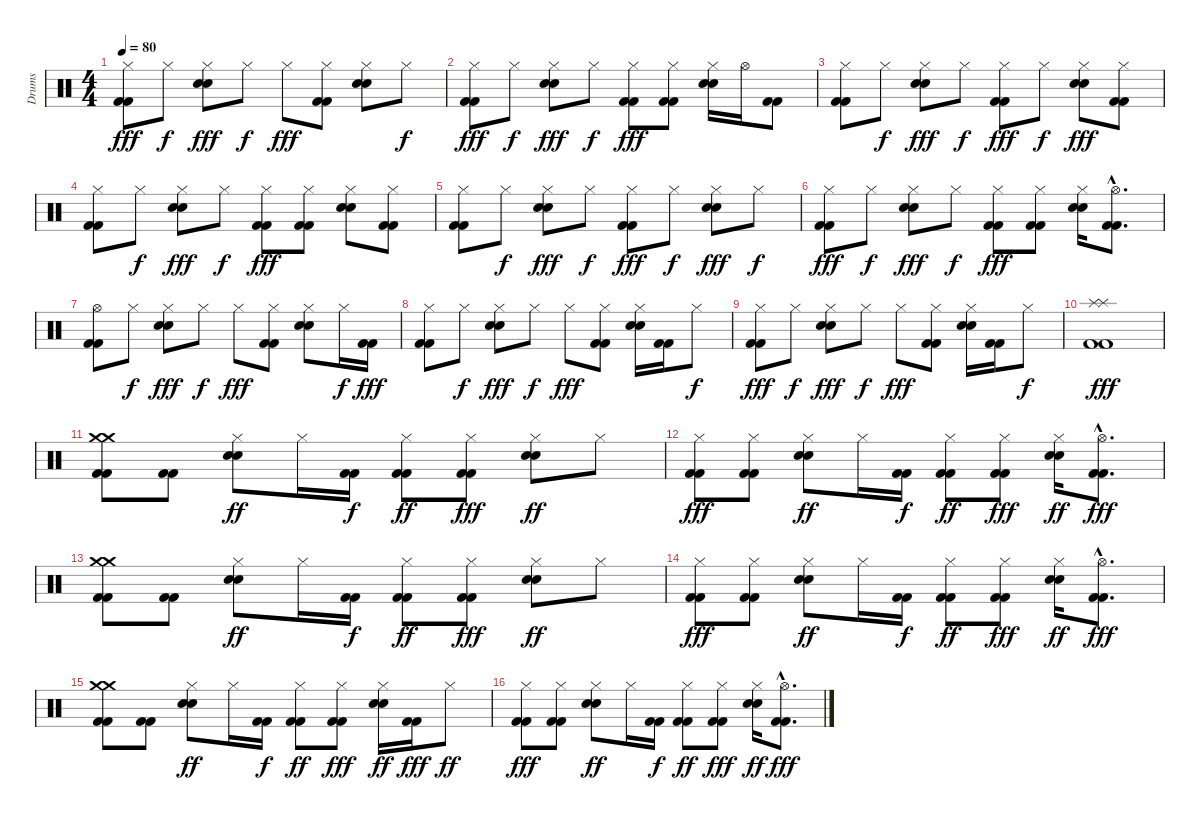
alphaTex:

\track ("Drums" "Drums") {instrument percussion}
\staff {score}
\articulation defaults
\ts (4 4)
\tempo 80
\clef neutral
\ks c
("Hi-Hat (closed)" "Kick (hit) 2" "Kick (hit) 2").8{dy fff} "Hi-Hat (closed)".8{dy f} ("Hi-Hat (closed)" "Electric Snare (hit)" "Electric Snare (hit)").8{dy fff} "Hi-Hat (closed)".8{dy f} "Hi-Hat (closed)".8{dy fff} ("Hi-Hat (closed)" "Kick (hit) 2" "Kick (hit) 2").8 ("Hi-Hat (closed)" "Electric Snare (hit)" "Electric Snare (hit)").8 "Hi-Hat (closed)".8{dy f} |
("Hi-Hat (closed)" "Kick (hit) 2" "Kick (hit) 2").8{dy fff} "Hi-Hat (closed)".8{dy f} ("Hi-Hat (closed)" "Electric Snare (hit)" "Electric Snare (hit)").8{dy fff} "Hi-Hat (closed)".8{dy f} ("Hi-Hat (closed)" "Kick (hit) 2" "Kick (hit) 2").8{dy fff} ("Hi-Hat (closed)" "Kick (hit) 2" "Kick (hit) 2").8 ("Hi-Hat (closed)" "Electric Snare (hit)" "Electric Snare (hit)").16 "Hi-Hat (open)".16 ("Kick (hit) 2" "Kick (hit) 2").8 |
("Hi-Hat (closed)" "Kick (hit) 2" "Kick (hit) 2").8 "Hi-Hat (closed)".8{dy f} ("Hi-Hat (closed)" "Electric Snare (hit)" "Electric Snare (hit)").8{dy fff} "Hi-Hat (closed)".8{dy f} ("Hi-Hat (closed)" "Kick (hit) 2" "Kick (hit) 2").8{dy fff} "Hi-Hat (closed)".8{dy f} ("Hi-Hat (closed)" "Electric Snare (hit)" "Electric Snare (hit)").8{dy fff} ("Hi-Hat (closed)" "Kick (hit) 2" "Kick (hit) 2").8 |
("Hi-Hat (closed)" "Kick (hit) 2" "Kick (hit) 2").8 "Hi-Hat (closed)".8{dy f} ("Hi-Hat (closed)" "Electric Snare (hit)" "Electric Snare (hit)").8{dy fff} "Hi-Hat (closed)".8{dy f} ("Hi-Hat (closed)" "Kick (hit) 2" "Kick (hit) 2").8{dy fff} ("Hi-Hat (closed)" "Kick (hit) 2" "Kick (hit) 2").8 ("Hi-Hat (closed)" "Electric Snare (hit)" "Electric Snare (hit)").8 ("Hi-Hat (closed)" "Kick (hit) 2" "Kick (hit) 2").8 |
("Hi-Hat (closed)" "Kick (hit) 2" "Kick (hit) 2").8 "Hi-Hat (closed)".8{dy f} ("Hi-Hat (closed)" "Electric Snare (hit)" "Electric Snare (hit)").8{dy fff} "Hi-Hat (closed)".8{dy f} ("Hi-Hat (closed)" "Kick (hit) 2" "Kick (hit) 2").8{dy fff} "Hi-Hat (closed)".8{dy f} ("Hi-Hat (closed)" "Electric Snare (hit)" "Electric Snare (hit)").8{dy fff} "Hi-Hat (closed)".8{dy f} |
("Hi-Hat (closed)" "Kick (hit) 2" "Kick (hit) 2").8{dy fff} "Hi-Hat (closed)".8{dy f} ("Hi-Hat (closed)" "Electric Snare (hit)" "Electric Snare (hit)").8{dy fff} "Hi-Hat (closed)".8{dy f} ("Hi-Hat (closed)" "Kick (hit) 2" "Kick (hit) 2").8{dy fff} ("Hi-Hat (closed)" "Kick (hit) 2" "Kick (hit) 2").8 ("Hi-Hat (closed)" "Electric Snare (hit)" "Electric Snare (hit)").16 ("Hi-Hat (open)"{hac} "Kick (hit) 2"{hac} "Kick (hit) 2"{hac}).8{d} |
("Hi-Hat (open)" "Kick (hit) 2" "Kick (hit) 2").8 "Hi-Hat (closed)".8{dy f} ("Hi-Hat (closed)" "Electric Snare (hit)" "Electric Snare (hit)").8{dy fff} "Hi-Hat (closed)".8{dy f} "Hi-Hat (closed)".8{dy fff} ("Hi-Hat (closed)" "Kick (hit) 2" "Kick (hit) 2").8 ("Hi-Hat (closed)" "Electric Snare (hit)" "Electric Snare (hit)").8 "Hi-Hat (closed)".16{dy f} ("Kick (hit) 2" "Kick (hit) 2").16{dy fff} |
("Hi-Hat (closed)" "Kick (hit) 2" "Kick (hit) 2").8 "Hi-Hat (closed)".8{dy f} ("Hi-Hat (closed)" "Electric Snare (hit)" "Electric Snare (hit)").8{dy fff} "Hi-Hat (closed)".8{dy f} "Hi-Hat (closed)".8{dy fff} ("Hi-Hat (closed)" "Kick (hit) 2" "Kick (hit) 2").8 ("Hi-Hat (closed)" "Electric Snare (hit)" "Electric Snare (hit)").16 ("Kick (hit) 2" "Kick (hit) 2").16 "Hi-Hat (closed)".8{dy f} |
("Hi-Hat (closed)" "Kick (hit) 2" "Kick (hit) 2").8{dy fff} "Hi-Hat (closed)".8{dy f} ("Hi-Hat (closed)" "Electric Snare (hit)" "Electric Snare (hit)").8{dy fff} "Hi-Hat (closed)".8{dy f} "Hi-Hat (closed)".8{dy fff} ("Hi-Hat (closed)" "Kick (hit) 2" "Kick (hit) 2").8 ("Hi-Hat (closed)" "Electric Snare (hit)" "Electric Snare (hit)").16 ("Kick (hit) 2" "Kick (hit) 2").16 "Hi-Hat (closed)".8{dy f} |
("Splash (hit)" "Splash (hit)" "Kick (hit) 2" "Kick (hit) 2").1{dy fff} |
("Crash medium (hit)" "Crash medium (hit)" "Kick (hit) 2" "Kick (hit) 2").8 ("Kick (hit) 2" "Kick (hit) 2").8 ("Hi-Hat (closed)" "Electric Snare (hit)" "Electric Snare (hit)").8{dy ff} "Hi-Hat (closed)".16 ("Kick (hit) 2" "Kick (hit) 2").16{dy f} ("Hi-Hat (closed)" "Kick (hit) 2" "Kick (hit) 2").8{dy ff} ("Hi-Hat (closed)" "Kick (hit) 2" "Kick (hit) 2").8{dy fff} ("Hi-Hat (closed)" "Electric Snare (hit)" "Electric Snare (hit)").8{dy ff} "Hi-Hat (closed)".8 |
("Hi-Hat (closed)" "Kick (hit) 2" "Kick (hit) 2").8{dy fff} ("Hi-Hat (closed)" "Kick (hit) 2" "Kick (hit) 2").8 ("Hi-Hat (closed)" "Electric Snare (hit)" "Electric Snare (hit)").8{dy ff} "Hi-Hat (closed)".16 ("Kick (hit) 2" "Kick (hit) 2").16{dy f} ("Hi-Hat (closed)" "Kick (hit) 2" "Kick (hit) 2").8{dy ff} ("Hi-Hat (closed)" "Kick (hit) 2" "Kick (hit) 2").8{dy fff} ("Hi-Hat (closed)" "Electric Snare (hit)" "Electric Snare (hit)").16{dy ff} ("Hi-Hat (open)"{hac} "Kick (hit) 2"{hac} "Kick (hit) 2"{hac}).8{d dy fff} |
("Crash medium (hit)" "Crash medium (hit)" "Kick (hit) 2" "Kick (hit) 2").8 ("Kick (hit) 2" "Kick (hit) 2").8 ("Hi-Hat (closed)" "Electric Snare (hit)" "Electric Snare (hit)").8{dy ff} "Hi-Hat (closed)".16 ("Kick (hit) 2" "Kick (hit) 2").16{dy f} ("Hi-Hat (closed)" "Kick (hit) 2" "Kick (hit) 2").8{dy ff} ("Hi-Hat (closed)" "Kick (hit) 2" "Kick (hit) 2").8{dy fff} ("Hi-Hat (closed)" "Electric Snare (hit)" "Electric Snare (hit)").8{dy ff} "Hi-Hat (closed)".8 |
("Hi-Hat (closed)" "Kick (hit) 2" "Kick (hit) 2").8{dy fff} ("Hi-Hat (closed)" "Kick (hit) 2" "Kick (hit) 2").8 ("Hi-Hat (closed)" "Electric Snare (hit)" "Electric Snare (hit)").8{dy ff} "Hi-Hat (closed)".16 ("Kick (hit) 2" "Kick (hit) 2").16{dy f} ("Hi-Hat (closed)" "Kick (hit) 2" "Kick (hit) 2").8{dy ff} ("Hi-Hat (closed)" "Kick (hit) 2" "Kick (hit) 2").8{dy fff} ("Hi-Hat (closed)" "Electric Snare (hit)" "Electric Snare (hit)").16{dy ff} ("Hi-Hat (open)"{hac} "Kick (hit) 2"{hac} "Kick (hit) 2"{hac}).8{d dy fff} |
("Crash medium (hit)" "Crash medium (hit)" "Kick (hit) 2" "Kick (hit) 2").8 ("Kick (hit) 2" "Kick (hit) 2").8 ("Hi-Hat (closed)" "Electric Snare (hit)" "Electric Snare (hit)").8{dy ff} "Hi-Hat (closed)".16 ("Kick (hit) 2" "Kick (hit) 2").16{dy f} ("Hi-Hat (closed)" "Kick (hit) 2" "Kick (hit) 2").8{dy ff} ("Hi-Hat (closed)" "Kick (hit) 2" "Kick (hit) 2").8{dy fff} ("Hi-Hat (closed)" "Electric Snare (hit)" "Electric Snare (hit)").16{dy ff} ("Kick (hit) 2" "Kick (hit) 2").16{dy fff} "Hi-Hat (closed)".8{dy ff} |
("Hi-Hat (closed)" "Kick (hit) 2" "Kick (hit) 2").8{dy fff} ("Hi-Hat (closed)" "Kick (hit) 2" "Kick (hit) 2").8 ("Hi-Hat (closed)" "Electric Snare (hit)" "Electric Snare (hit)").8{dy ff} "Hi-Hat (closed)".16 ("Kick (hit) 2" "Kick (hit) 2").16{dy f} ("Hi-Hat (closed)" "Kick (hit) 2" "Kick (hit) 2").8{dy ff} ("Hi-Hat (closed)" "Kick (hit) 2" "Kick (hit) 2").8{dy fff} ("Hi-Hat (closed)" "Electric Snare (hit)" "Electric Snare (hit)").16{dy ff} ("Hi-Hat (open)"{hac} "Kick (hit) 2"{hac} "Kick (hit) 2"{hac}).8{d dy fff}
